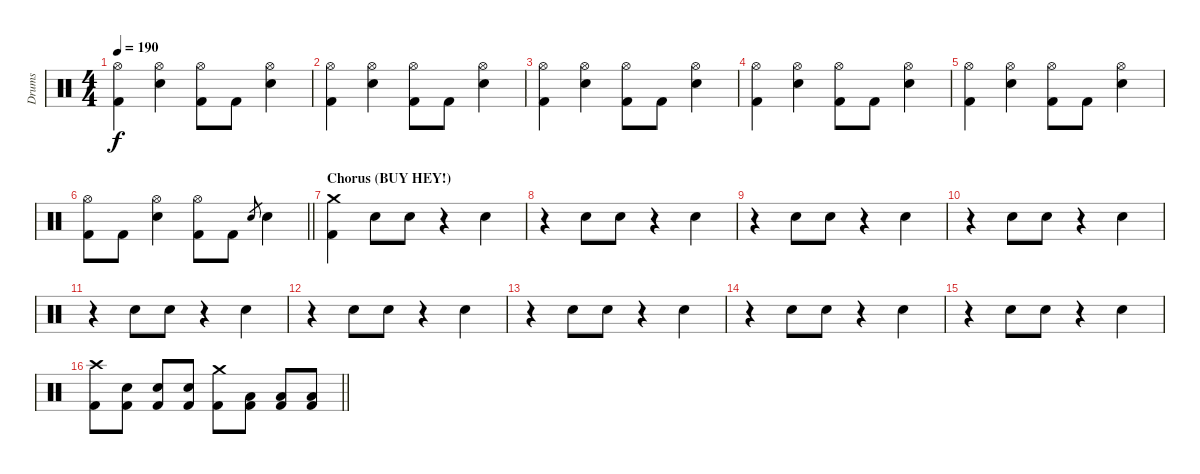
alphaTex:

\track ("Drums" "Drums") {instrument percussion}
\staff {score}
\articulation defaults
\ts (4 4)
\tempo 190
\clef neutral
\ks c
("Hi-Hat (open)" "Kick (hit) 2").4{dy f} ("Hi-Hat (open)" "Snare (hit) 2").4 ("Hi-Hat (open)" "Kick (hit) 2").8 "Kick (hit) 2".8 ("Hi-Hat (open)" "Snare (hit) 2").4 |
("Hi-Hat (open)" "Kick (hit) 2").4 ("Hi-Hat (open)" "Snare (hit) 2").4 ("Hi-Hat (open)" "Kick (hit) 2").8 "Kick (hit) 2".8 ("Hi-Hat (open)" "Snare (hit) 2").4 |
("Hi-Hat (open)" "Kick (hit) 2").4 ("Hi-Hat (open)" "Snare (hit) 2").4 ("Hi-Hat (open)" "Kick (hit) 2").8 "Kick (hit) 2".8 ("Hi-Hat (open)" "Snare (hit) 2").4 |
("Hi-Hat (open)" "Kick (hit) 2").4 ("Hi-Hat (open)" "Snare (hit) 2").4 ("Hi-Hat (open)" "Kick (hit) 2").8 "Kick (hit) 2".8 ("Hi-Hat (open)" "Snare (hit) 2").4 |
("Hi-Hat (open)" "Kick (hit) 2").4 ("Hi-Hat (open)" "Snare (hit) 2").4 ("Hi-Hat (open)" "Kick (hit) 2").8 "Kick (hit) 2".8 ("Hi-Hat (open)" "Snare (hit) 2").4 |
\barLineRight lightlight
("Hi-Hat (open)" "Kick (hit) 2").8 "Kick (hit) 2".8 ("Hi-Hat (open)" "Snare (hit) 2").4 ("Hi-Hat (open)" "Kick (hit) 2").8 "Kick (hit) 2".8 "Snare (hit) 2".8{gr} "Snare (hit) 2".4 |
\section ("" "Chorus (BUY HEY!)")
("Crash medium (hit)" "Kick (hit) 2").4 "Hand Clap (hit)".8 "Hand Clap (hit)".8 r.4 "Hand Clap (hit)".4 |
r.4 "Hand Clap (hit)".8 "Hand Clap (hit)".8 r.4 "Hand Clap (hit)".4 |
r.4 "Hand Clap (hit)".8 "Hand Clap (hit)".8 r.4 "Hand Clap (hit)".4 |
r.4 "Hand Clap (hit)".8 "Hand Clap (hit)".8 r.4 "Hand Clap (hit)".4 |
r.4 "Hand Clap (hit)".8 "Hand Clap (hit)".8 r.4 "Hand Clap (hit)".4 |
r.4 "Hand Clap (hit)".8 "Hand Clap (hit)".8 r.4 "Hand Clap (hit)".4 |
r.4 "Hand Clap (hit)".8 "Hand Clap (hit)".8 r.4 "Hand Clap (hit)".4 |
r.4 "Hand Clap (hit)".8 "Hand Clap (hit)".8 r.4 "Hand Clap (hit)".4 |
r.4 "Hand Clap (hit)".8 "Hand Clap (hit)".8 r.4 "Hand Clap (hit)".4 |
\barLineRight lightlight
("Crash high (hit)" "Kick (hit) 2").8 ("Snare (hit) 2" "Kick (hit) 2").8 ("Snare (hit) 2" "Kick (hit) 2").8 ("Snare (hit) 2" "Kick (hit) 2").8 ("Crash medium (hit)" "Kick (hit) 2").8 ("Low Tom (hit)" "Kick (hit) 2").8 ("Low Tom (hit)" "Kick (hit) 2").8 ("Low Tom (hit)" "Kick (hit) 2").8
